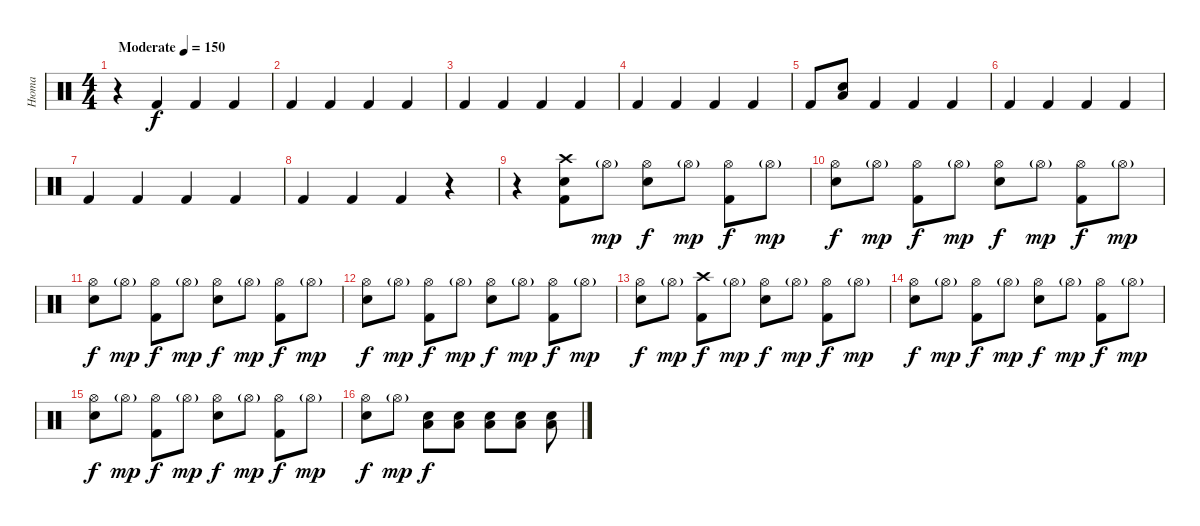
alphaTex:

\track ("Нюта" "Нюта") {instrument percussion}
\staff {score}
\articulation defaults
\ts (4 4)
\tempo (150 "Moderate")
\clef neutral
\ks c
r.4{dy f} "Kick (hit) 2".4 "Kick (hit) 2".4 "Kick (hit) 2".4 |
"Kick (hit) 2".4 "Kick (hit) 2".4 "Kick (hit) 2".4 "Kick (hit) 2".4 |
"Kick (hit) 2".4 "Kick (hit) 2".4 "Kick (hit) 2".4 "Kick (hit) 2".4 |
"Kick (hit) 2".4 "Kick (hit) 2".4 "Kick (hit) 2".4 "Kick (hit) 2".4 |
"Kick (hit) 2".8 ("Snare (hit) 2" "Low Tom (hit)").8 "Kick (hit) 2".4 "Kick (hit) 2".4 "Kick (hit) 2".4 |
"Kick (hit) 2".4 "Kick (hit) 2".4 "Kick (hit) 2".4 "Kick (hit) 2".4 |
"Kick (hit) 2".4 "Kick (hit) 2".4 "Kick (hit) 2".4 "Kick (hit) 2".4 |
"Kick (hit) 2".4 "Kick (hit) 2".4 "Kick (hit) 2".4 r.4 |
r.4 ("Snare (hit)" "Kick (hit) 2" "Crash high (hit)").8 "Hi-Hat (open)"{g}.8{dy mp} ("Hi-Hat (open)" "Electric Snare (hit)").8{dy f} "Hi-Hat (open)"{g}.8{dy mp} ("Hi-Hat (open)" "Kick (hit) 2").8{dy f} "Hi-Hat (open)"{g}.8{dy mp} |
("Hi-Hat (open)" "Electric Snare (hit)").8{dy f} "Hi-Hat (open)"{g}.8{dy mp} ("Hi-Hat (open)" "Kick (hit) 2").8{dy f} "Hi-Hat (open)"{g}.8{dy mp} ("Hi-Hat (open)" "Electric Snare (hit)").8{dy f} "Hi-Hat (open)"{g}.8{dy mp} ("Hi-Hat (open)" "Kick (hit) 2").8{dy f} "Hi-Hat (open)"{g}.8{dy mp} |
("Hi-Hat (open)" "Electric Snare (hit)").8{dy f} "Hi-Hat (open)"{g}.8{dy mp} ("Hi-Hat (open)" "Kick (hit) 2").8{dy f} "Hi-Hat (open)"{g}.8{dy mp} ("Hi-Hat (open)" "Electric Snare (hit)").8{dy f} "Hi-Hat (open)"{g}.8{dy mp} ("Hi-Hat (open)" "Kick (hit) 2").8{dy f} "Hi-Hat (open)"{g}.8{dy mp} |
("Hi-Hat (open)" "Electric Snare (hit)").8{dy f} "Hi-Hat (open)"{g}.8{dy mp} ("Hi-Hat (open)" "Kick (hit) 2").8{dy f} "Hi-Hat (open)"{g}.8{dy mp} ("Hi-Hat (open)" "Electric Snare (hit)").8{dy f} "Hi-Hat (open)"{g}.8{dy mp} ("Hi-Hat (open)" "Kick (hit) 2").8{dy f} "Hi-Hat (open)"{g}.8{dy mp} |
("Hi-Hat (open)" "Electric Snare (hit)").8{dy f} "Hi-Hat (open)"{g}.8{dy mp} ("Crash high (hit)" "Kick (hit) 2").8{dy f} "Hi-Hat (open)"{g}.8{dy mp} ("Hi-Hat (open)" "Electric Snare (hit)").8{dy f} "Hi-Hat (open)"{g}.8{dy mp} ("Hi-Hat (open)" "Kick (hit) 2").8{dy f} "Hi-Hat (open)"{g}.8{dy mp} |
("Hi-Hat (open)" "Electric Snare (hit)").8{dy f} "Hi-Hat (open)"{g}.8{dy mp} ("Hi-Hat (open)" "Kick (hit) 2").8{dy f} "Hi-Hat (open)"{g}.8{dy mp} ("Hi-Hat (open)" "Electric Snare (hit)").8{dy f} "Hi-Hat (open)"{g}.8{dy mp} ("Hi-Hat (open)" "Kick (hit) 2").8{dy f} "Hi-Hat (open)"{g}.8{dy mp} |
("Hi-Hat (open)" "Electric Snare (hit)").8{dy f} "Hi-Hat (open)"{g}.8{dy mp} ("Hi-Hat (open)" "Kick (hit) 2").8{dy f} "Hi-Hat (open)"{g}.8{dy mp} ("Hi-Hat (open)" "Electric Snare (hit)").8{dy f} "Hi-Hat (open)"{g}.8{dy mp} ("Hi-Hat (open)" "Kick (hit) 2").8{dy f} "Hi-Hat (open)"{g}.8{dy mp} |
("Hi-Hat (open)" "Electric Snare (hit)").8{dy f} "Hi-Hat (open)"{g}.8{dy mp} ("Electric Snare (hit)" "Low Tom (hit)").8{dy f} ("Electric Snare (hit)" "Low Tom (hit)").8 ("Electric Snare (hit)" "Low Tom (hit)").8 ("Electric Snare (hit)" "Low Tom (hit)").8 ("Electric Snare (hit)" "Low Tom (hit)").8
